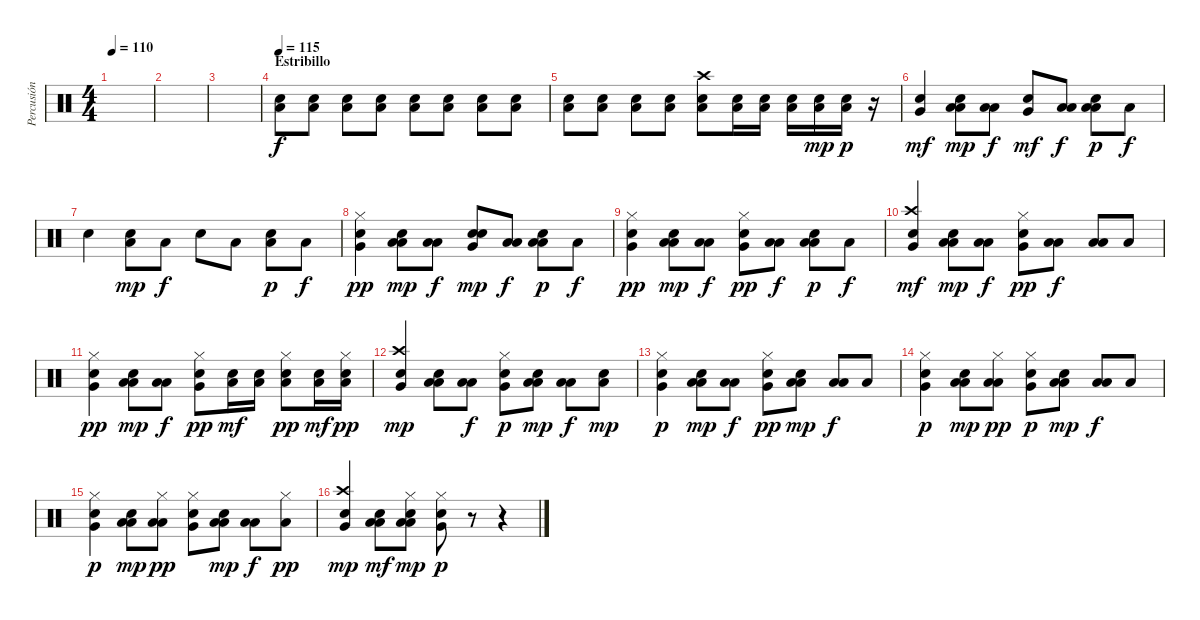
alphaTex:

\track ("Percusión" "Percusión") {instrument percussion}
\staff {score}
\articulation defaults
\ts (4 4)
\tempo 110
\clef neutral
\ks c
|
|
|
\section ("" "Estribillo")
\tempo 115
("Snare (hit) 2" "Low Floor Tom (hit)").8 ("Snare (hit) 2" "Low Floor Tom (hit)").8 ("Snare (hit) 2" "Low Floor Tom (hit)").8 ("Snare (hit) 2" "Low Floor Tom (hit)").8 ("Snare (hit) 2" "Low Floor Tom (hit)").8 ("Snare (hit) 2" "Low Floor Tom (hit)").8 ("Snare (hit) 2" "Low Floor Tom (hit)").8 ("Snare (hit) 2" "Low Floor Tom (hit)").8 |
("Snare (hit) 2" "Low Floor Tom (hit)").8 ("Snare (hit) 2" "Low Floor Tom (hit)").8 ("Snare (hit) 2" "Low Floor Tom (hit)").8 ("Snare (hit) 2" "Low Floor Tom (hit)").8 ("Snare (hit) 2" "Low Floor Tom (hit)" "Crash high (hit)").8 ("Snare (hit) 2" "Low Floor Tom (hit)").16 ("Snare (hit) 2" "Low Floor Tom (hit)").16 ("Snare (hit) 2" "Low Floor Tom (hit)").16 ("Snare (hit) 2" "Low Floor Tom (hit)").16{dy mp} ("Snare (hit) 2" "Low Floor Tom (hit)").16{dy p} r.16 |
("Snare (hit) 2" "Very Low Tom (hit)").4{dy mf} ("Low Floor Tom (hit)" "Low Floor Tom (hit)" "Snare (hit) 2").8{dy mp} ("Low Floor Tom (hit)" "Low Floor Tom (hit)").8{dy f} ("Snare (hit) 2" "Very Low Tom (hit)").8{dy mf} ("Low Floor Tom (hit)" "Low Floor Tom (hit)").8{dy f} ("Low Floor Tom (hit)" "Low Floor Tom (hit)" "Snare (hit) 2").8{dy p} "Low Floor Tom (hit)".8{dy f} |
"Snare (hit) 2".4 ("Low Floor Tom (hit)" "Snare (hit) 2").8{dy mp} "Low Floor Tom (hit)".8{dy f} "Snare (hit) 2".8 "Low Floor Tom (hit)".8 ("Low Floor Tom (hit)" "Snare (hit) 2").8{dy p} "Low Floor Tom (hit)".8{dy f} |
("Snare (hit) 2" "Very Low Tom (hit)" "Hi-Hat (closed)").4{dy pp} ("Low Floor Tom (hit)" "Low Floor Tom (hit)" "Snare (hit) 2").8{dy mp} ("Low Floor Tom (hit)" "Low Floor Tom (hit)").8{dy f} ("Snare (hit) 2" "Very Low Tom (hit)" "Snare (hit) 2").8{dy mp} ("Low Floor Tom (hit)" "Low Floor Tom (hit)").8{dy f} ("Low Floor Tom (hit)" "Low Floor Tom (hit)" "Snare (hit) 2").8{dy p} "Low Floor Tom (hit)".8{dy f} |
("Snare (hit) 2" "Very Low Tom (hit)" "Hi-Hat (closed)").4{dy pp} ("Low Floor Tom (hit)" "Low Floor Tom (hit)" "Snare (hit) 2").8{dy mp} ("Low Floor Tom (hit)" "Low Floor Tom (hit)").8{dy f} ("Snare (hit) 2" "Very Low Tom (hit)" "Hi-Hat (closed)").8{dy pp} ("Low Floor Tom (hit)" "Low Floor Tom (hit)").8{dy f} ("Low Floor Tom (hit)" "Low Floor Tom (hit)" "Snare (hit) 2").8{dy p} "Low Floor Tom (hit)".8{dy f} |
("Snare (hit) 2" "Very Low Tom (hit)" "Crash high (hit)").4{dy mf} ("Low Floor Tom (hit)" "Low Floor Tom (hit)" "Snare (hit) 2").8{dy mp} ("Low Floor Tom (hit)" "Low Floor Tom (hit)").8{dy f} ("Snare (hit) 2" "Very Low Tom (hit)" "Hi-Hat (closed)").8{dy pp} ("Low Floor Tom (hit)" "Low Floor Tom (hit)").8{dy f} ("Low Floor Tom (hit)" "Low Floor Tom (hit)").8 "Low Floor Tom (hit)".8 |
("Snare (hit) 2" "Very Low Tom (hit)" "Hi-Hat (closed)").4{dy pp} ("Low Floor Tom (hit)" "Low Floor Tom (hit)" "Snare (hit) 2").8{dy mp} ("Low Floor Tom (hit)" "Low Floor Tom (hit)").8{dy f} ("Snare (hit) 2" "Very Low Tom (hit)" "Hi-Hat (closed)").8{dy pp} ("Snare (hit) 2" "Low Floor Tom (hit)").16{dy mf} ("Snare (hit) 2" "Low Floor Tom (hit)").16 ("Snare (hit) 2" "Low Floor Tom (hit)" "Hi-Hat (closed)").8{dy pp} ("Snare (hit) 2" "Low Floor Tom (hit)").16{dy mf} ("Snare (hit) 2" "Low Floor Tom (hit)" "Hi-Hat (closed)").16{dy pp} |
("Snare (hit) 2" "Very Low Tom (hit)" "Crash high (hit)").4{dy mp} ("Low Floor Tom (hit)" "Low Floor Tom (hit)" "Snare (hit) 2").8 ("Low Floor Tom (hit)" "Low Floor Tom (hit)").8{dy f} ("Snare (hit) 2" "Very Low Tom (hit)" "Hi-Hat (closed)").8{dy p} ("Low Floor Tom (hit)" "Low Floor Tom (hit)" "Snare (hit) 2").8{dy mp} ("Low Floor Tom (hit)" "Low Floor Tom (hit)").8{dy f} ("Low Floor Tom (hit)" "Snare (hit) 2").8{dy mp} |
("Snare (hit) 2" "Very Low Tom (hit)" "Hi-Hat (closed)").4{dy p} ("Low Floor Tom (hit)" "Low Floor Tom (hit)" "Snare (hit) 2").8{dy mp} ("Low Floor Tom (hit)" "Low Floor Tom (hit)").8{dy f} ("Snare (hit) 2" "Very Low Tom (hit)" "Hi-Hat (closed)").8{dy pp} ("Low Floor Tom (hit)" "Low Floor Tom (hit)" "Snare (hit) 2").8{dy mp} ("Low Floor Tom (hit)" "Low Floor Tom (hit)").8{dy f} "Low Floor Tom (hit)".8 |
("Snare (hit) 2" "Very Low Tom (hit)" "Hi-Hat (closed)").4{dy p} ("Low Floor Tom (hit)" "Low Floor Tom (hit)" "Snare (hit) 2").8{dy mp} ("Low Floor Tom (hit)" "Low Floor Tom (hit)" "Hi-Hat (closed)").8{dy pp} ("Snare (hit) 2" "Very Low Tom (hit)" "Hi-Hat (closed)").8{dy p} ("Low Floor Tom (hit)" "Low Floor Tom (hit)" "Snare (hit) 2").8{dy mp} ("Low Floor Tom (hit)" "Low Floor Tom (hit)").8{dy f} "Low Floor Tom (hit)".8 |
("Snare (hit) 2" "Very Low Tom (hit)" "Hi-Hat (closed)").4{dy p} ("Low Floor Tom (hit)" "Low Floor Tom (hit)" "Snare (hit) 2").8{dy mp} ("Low Floor Tom (hit)" "Low Floor Tom (hit)" "Hi-Hat (closed)").8{dy pp} ("Snare (hit) 2" "Very Low Tom (hit)" "Hi-Hat (closed)").8 ("Low Floor Tom (hit)" "Low Floor Tom (hit)" "Snare (hit) 2").8{dy mp} ("Low Floor Tom (hit)" "Low Floor Tom (hit)").8{dy f} ("Low Floor Tom (hit)" "Hi-Hat (closed)").8{dy pp} |
("Snare (hit) 2" "Very Low Tom (hit)" "Crash high (hit)").4{dy mp} ("Low Floor Tom (hit)" "Low Floor Tom (hit)" "Snare (hit) 2").8{dy mf} ("Low Floor Tom (hit)" "Low Floor Tom (hit)" "Hi-Hat (closed)" "Snare (hit) 2").8{dy mp} ("Snare (hit) 2" "Very Low Tom (hit)" "Hi-Hat (closed)").8{dy p} r.8 r.4
